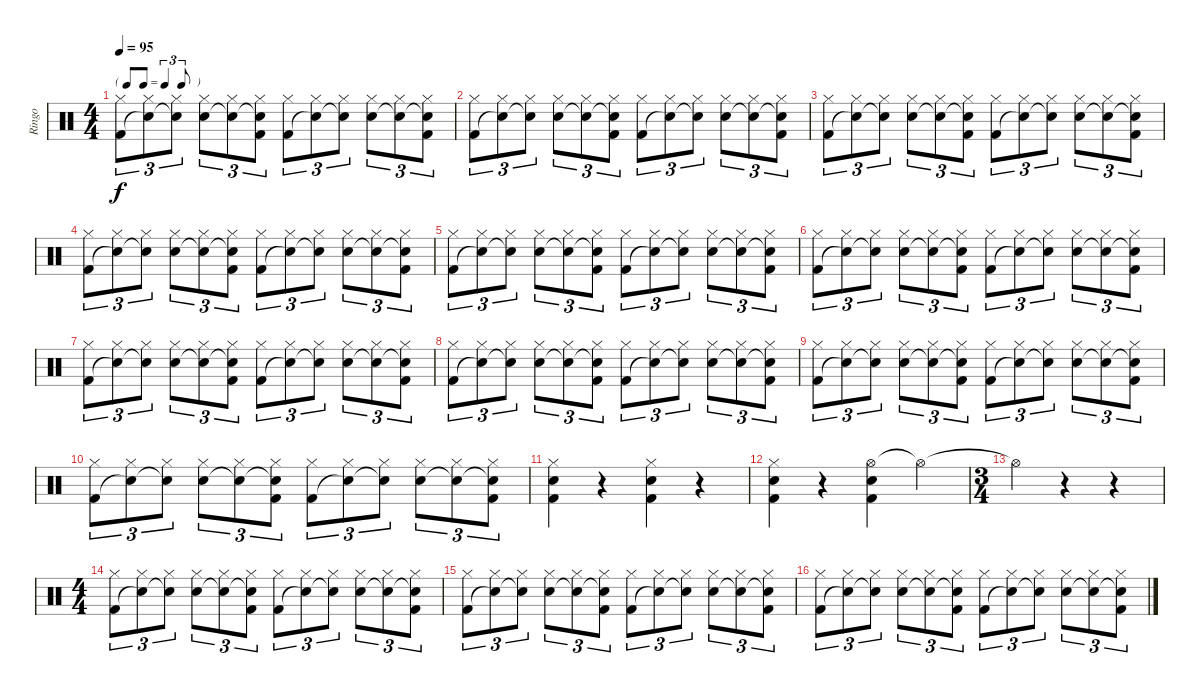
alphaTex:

\track ("Ringo" "Ringo") {instrument percussion}
\staff {score}
\articulation defaults
\ts (4 4)
\tf triplet8th
\tempo 95
\clef neutral
\ks c
("Hi-Hat (closed)" "Kick (hit) 2").8{tu (3 2) dy f} ("Hi-Hat (closed)" "Snare (hit)"{t}).8{tu (3 2)} ("Hi-Hat (closed)" "Snare (hit)"{t}).8{tu (3 2)} ("Hi-Hat (closed)" "Snare (hit) 2").8{tu (3 2)} ("Hi-Hat (closed)" "Snare (hit)"{t}).8{tu (3 2)} ("Hi-Hat (closed)" "Snare (hit)"{t} "Kick (hit) 2").8{tu (3 2)} ("Hi-Hat (closed)" "Kick (hit) 2").8{tu (3 2)} ("Hi-Hat (closed)" "Snare (hit)"{t}).8{tu (3 2)} ("Hi-Hat (closed)" "Snare (hit)"{t}).8{tu (3 2)} ("Hi-Hat (closed)" "Snare (hit) 2").8{tu (3 2)} ("Hi-Hat (closed)" "Snare (hit)"{t}).8{tu (3 2)} ("Hi-Hat (closed)" "Snare (hit)"{t} "Kick (hit) 2").8{tu (3 2)} |
("Hi-Hat (closed)" "Kick (hit) 2").8{tu (3 2)} ("Hi-Hat (closed)" "Snare (hit)"{t}).8{tu (3 2)} ("Hi-Hat (closed)" "Snare (hit)"{t}).8{tu (3 2)} ("Hi-Hat (closed)" "Snare (hit) 2").8{tu (3 2)} ("Hi-Hat (closed)" "Snare (hit)"{t}).8{tu (3 2)} ("Hi-Hat (closed)" "Snare (hit)"{t} "Kick (hit) 2").8{tu (3 2)} ("Hi-Hat (closed)" "Kick (hit) 2").8{tu (3 2)} ("Hi-Hat (closed)" "Snare (hit)"{t}).8{tu (3 2)} ("Hi-Hat (closed)" "Snare (hit)"{t}).8{tu (3 2)} ("Hi-Hat (closed)" "Snare (hit) 2").8{tu (3 2)} ("Hi-Hat (closed)" "Snare (hit)"{t}).8{tu (3 2)} ("Hi-Hat (closed)" "Snare (hit)"{t} "Kick (hit) 2").8{tu (3 2)} |
("Hi-Hat (closed)" "Kick (hit) 2").8{tu (3 2)} ("Hi-Hat (closed)" "Snare (hit)"{t}).8{tu (3 2)} ("Hi-Hat (closed)" "Snare (hit)"{t}).8{tu (3 2)} ("Hi-Hat (closed)" "Snare (hit) 2").8{tu (3 2)} ("Hi-Hat (closed)" "Snare (hit)"{t}).8{tu (3 2)} ("Hi-Hat (closed)" "Snare (hit)"{t} "Kick (hit) 2").8{tu (3 2)} ("Hi-Hat (closed)" "Kick (hit) 2").8{tu (3 2)} ("Hi-Hat (closed)" "Snare (hit)"{t}).8{tu (3 2)} ("Hi-Hat (closed)" "Snare (hit)"{t}).8{tu (3 2)} ("Hi-Hat (closed)" "Snare (hit) 2").8{tu (3 2)} ("Hi-Hat (closed)" "Snare (hit)"{t}).8{tu (3 2)} ("Hi-Hat (closed)" "Snare (hit)"{t} "Kick (hit) 2").8{tu (3 2)} |
("Hi-Hat (closed)" "Kick (hit) 2").8{tu (3 2)} ("Hi-Hat (closed)" "Snare (hit)"{t}).8{tu (3 2)} ("Hi-Hat (closed)" "Snare (hit)"{t}).8{tu (3 2)} ("Hi-Hat (closed)" "Snare (hit) 2").8{tu (3 2)} ("Hi-Hat (closed)" "Snare (hit)"{t}).8{tu (3 2)} ("Hi-Hat (closed)" "Snare (hit)"{t} "Kick (hit) 2").8{tu (3 2)} ("Hi-Hat (closed)" "Kick (hit) 2").8{tu (3 2)} ("Hi-Hat (closed)" "Snare (hit)"{t}).8{tu (3 2)} ("Hi-Hat (closed)" "Snare (hit)"{t}).8{tu (3 2)} ("Hi-Hat (closed)" "Snare (hit) 2").8{tu (3 2)} ("Hi-Hat (closed)" "Snare (hit)"{t}).8{tu (3 2)} ("Hi-Hat (closed)" "Snare (hit)"{t} "Kick (hit) 2").8{tu (3 2)} |
("Hi-Hat (closed)" "Kick (hit) 2").8{tu (3 2)} ("Hi-Hat (closed)" "Snare (hit)"{t}).8{tu (3 2)} ("Hi-Hat (closed)" "Snare (hit)"{t}).8{tu (3 2)} ("Hi-Hat (closed)" "Snare (hit) 2").8{tu (3 2)} ("Hi-Hat (closed)" "Snare (hit)"{t}).8{tu (3 2)} ("Hi-Hat (closed)" "Snare (hit)"{t} "Kick (hit) 2").8{tu (3 2)} ("Hi-Hat (closed)" "Kick (hit) 2").8{tu (3 2)} ("Hi-Hat (closed)" "Snare (hit)"{t}).8{tu (3 2)} ("Hi-Hat (closed)" "Snare (hit)"{t}).8{tu (3 2)} ("Hi-Hat (closed)" "Snare (hit) 2").8{tu (3 2)} ("Hi-Hat (closed)" "Snare (hit)"{t}).8{tu (3 2)} ("Hi-Hat (closed)" "Snare (hit)"{t} "Kick (hit) 2").8{tu (3 2)} |
("Hi-Hat (closed)" "Kick (hit) 2").8{tu (3 2)} ("Hi-Hat (closed)" "Snare (hit)"{t}).8{tu (3 2)} ("Hi-Hat (closed)" "Snare (hit)"{t}).8{tu (3 2)} ("Hi-Hat (closed)" "Snare (hit) 2").8{tu (3 2)} ("Hi-Hat (closed)" "Snare (hit)"{t}).8{tu (3 2)} ("Hi-Hat (closed)" "Snare (hit)"{t} "Kick (hit) 2").8{tu (3 2)} ("Hi-Hat (closed)" "Kick (hit) 2").8{tu (3 2)} ("Hi-Hat (closed)" "Snare (hit)"{t}).8{tu (3 2)} ("Hi-Hat (closed)" "Snare (hit)"{t}).8{tu (3 2)} ("Hi-Hat (closed)" "Snare (hit) 2").8{tu (3 2)} ("Hi-Hat (closed)" "Snare (hit)"{t}).8{tu (3 2)} ("Hi-Hat (closed)" "Snare (hit)"{t} "Kick (hit) 2").8{tu (3 2)} |
("Hi-Hat (closed)" "Kick (hit) 2").8{tu (3 2)} ("Hi-Hat (closed)" "Snare (hit)"{t}).8{tu (3 2)} ("Hi-Hat (closed)" "Snare (hit)"{t}).8{tu (3 2)} ("Hi-Hat (closed)" "Snare (hit) 2").8{tu (3 2)} ("Hi-Hat (closed)" "Snare (hit)"{t}).8{tu (3 2)} ("Hi-Hat (closed)" "Snare (hit)"{t} "Kick (hit) 2").8{tu (3 2)} ("Hi-Hat (closed)" "Kick (hit) 2").8{tu (3 2)} ("Hi-Hat (closed)" "Snare (hit)"{t}).8{tu (3 2)} ("Hi-Hat (closed)" "Snare (hit)"{t}).8{tu (3 2)} ("Hi-Hat (closed)" "Snare (hit) 2").8{tu (3 2)} ("Hi-Hat (closed)" "Snare (hit)"{t}).8{tu (3 2)} ("Hi-Hat (closed)" "Snare (hit)"{t} "Kick (hit) 2").8{tu (3 2)} |
("Hi-Hat (closed)" "Kick (hit) 2").8{tu (3 2)} ("Hi-Hat (closed)" "Snare (hit)"{t}).8{tu (3 2)} ("Hi-Hat (closed)" "Snare (hit)"{t}).8{tu (3 2)} ("Hi-Hat (closed)" "Snare (hit) 2").8{tu (3 2)} ("Hi-Hat (closed)" "Snare (hit)"{t}).8{tu (3 2)} ("Hi-Hat (closed)" "Snare (hit)"{t} "Kick (hit) 2").8{tu (3 2)} ("Hi-Hat (closed)" "Kick (hit) 2").8{tu (3 2)} ("Hi-Hat (closed)" "Snare (hit)"{t}).8{tu (3 2)} ("Hi-Hat (closed)" "Snare (hit)"{t}).8{tu (3 2)} ("Hi-Hat (closed)" "Snare (hit) 2").8{tu (3 2)} ("Hi-Hat (closed)" "Snare (hit)"{t}).8{tu (3 2)} ("Hi-Hat (closed)" "Snare (hit)"{t} "Kick (hit) 2").8{tu (3 2)} |
("Hi-Hat (closed)" "Kick (hit) 2").8{tu (3 2)} ("Hi-Hat (closed)" "Snare (hit)"{t}).8{tu (3 2)} ("Hi-Hat (closed)" "Snare (hit)"{t}).8{tu (3 2)} ("Hi-Hat (closed)" "Snare (hit) 2").8{tu (3 2)} ("Hi-Hat (closed)" "Snare (hit)"{t}).8{tu (3 2)} ("Hi-Hat (closed)" "Snare (hit)"{t} "Kick (hit) 2").8{tu (3 2)} ("Hi-Hat (closed)" "Kick (hit) 2").8{tu (3 2)} ("Hi-Hat (closed)" "Snare (hit)"{t}).8{tu (3 2)} ("Hi-Hat (closed)" "Snare (hit)"{t}).8{tu (3 2)} ("Hi-Hat (closed)" "Snare (hit) 2").8{tu (3 2)} ("Hi-Hat (closed)" "Snare (hit)"{t}).8{tu (3 2)} ("Hi-Hat (closed)" "Snare (hit)"{t} "Kick (hit) 2").8{tu (3 2)} |
("Hi-Hat (closed)" "Kick (hit) 2").8{tu (3 2)} ("Hi-Hat (closed)" "Snare (hit)"{t}).8{tu (3 2)} ("Hi-Hat (closed)" "Snare (hit)"{t}).8{tu (3 2)} ("Hi-Hat (closed)" "Snare (hit) 2").8{tu (3 2)} ("Hi-Hat (closed)" "Snare (hit)"{t}).8{tu (3 2)} ("Hi-Hat (closed)" "Snare (hit)"{t} "Kick (hit) 2").8{tu (3 2)} ("Hi-Hat (closed)" "Kick (hit) 2").8{tu (3 2)} ("Hi-Hat (closed)" "Snare (hit)"{t}).8{tu (3 2)} ("Hi-Hat (closed)" "Snare (hit)"{t}).8{tu (3 2)} ("Hi-Hat (closed)" "Snare (hit) 2").8{tu (3 2)} ("Hi-Hat (closed)" "Snare (hit)"{t}).8{tu (3 2)} ("Hi-Hat (closed)" "Snare (hit)"{t} "Kick (hit) 2").8{tu (3 2)} |
("Hi-Hat (closed)" "Snare (hit) 2" "Kick (hit) 2").4 r.4 ("Hi-Hat (closed)" "Snare (hit) 2" "Kick (hit) 2").4 r.4 |
("Hi-Hat (closed)" "Snare (hit) 2" "Kick (hit) 2").4 r.4 ("Hi-Hat (open)" "Snare (hit) 2" "Kick (hit) 2").4 "Hi-Hat (open)"{t}.4 |
\ts (3 4)
"Hi-Hat (open)"{t}.4 r.4 r.4 |
\ts (4 4)
("Hi-Hat (closed)" "Kick (hit) 2").8{tu (3 2)} ("Hi-Hat (closed)" "Snare (hit)"{t}).8{tu (3 2)} ("Hi-Hat (closed)" "Snare (hit)"{t}).8{tu (3 2)} ("Hi-Hat (closed)" "Snare (hit) 2").8{tu (3 2)} ("Hi-Hat (closed)" "Snare (hit)"{t}).8{tu (3 2)} ("Hi-Hat (closed)" "Snare (hit)"{t} "Kick (hit) 2").8{tu (3 2)} ("Hi-Hat (closed)" "Kick (hit) 2").8{tu (3 2)} ("Hi-Hat (closed)" "Snare (hit)"{t}).8{tu (3 2)} ("Hi-Hat (closed)" "Snare (hit)"{t}).8{tu (3 2)} ("Hi-Hat (closed)" "Snare (hit) 2").8{tu (3 2)} ("Hi-Hat (closed)" "Snare (hit)"{t}).8{tu (3 2)} ("Hi-Hat (closed)" "Snare (hit)"{t} "Kick (hit) 2").8{tu (3 2)} |
("Hi-Hat (closed)" "Kick (hit) 2").8{tu (3 2)} ("Hi-Hat (closed)" "Snare (hit)"{t}).8{tu (3 2)} ("Hi-Hat (closed)" "Snare (hit)"{t}).8{tu (3 2)} ("Hi-Hat (closed)" "Snare (hit) 2").8{tu (3 2)} ("Hi-Hat (closed)" "Snare (hit)"{t}).8{tu (3 2)} ("Hi-Hat (closed)" "Snare (hit)"{t} "Kick (hit) 2").8{tu (3 2)} ("Hi-Hat (closed)" "Kick (hit) 2").8{tu (3 2)} ("Hi-Hat (closed)" "Snare (hit)"{t}).8{tu (3 2)} ("Hi-Hat (closed)" "Snare (hit)"{t}).8{tu (3 2)} ("Hi-Hat (closed)" "Snare (hit) 2").8{tu (3 2)} ("Hi-Hat (closed)" "Snare (hit)"{t}).8{tu (3 2)} ("Hi-Hat (closed)" "Snare (hit)"{t} "Kick (hit) 2").8{tu (3 2)} |
("Hi-Hat (closed)" "Kick (hit) 2").8{tu (3 2)} ("Hi-Hat (closed)" "Snare (hit)"{t}).8{tu (3 2)} ("Hi-Hat (closed)" "Snare (hit)"{t}).8{tu (3 2)} ("Hi-Hat (closed)" "Snare (hit) 2").8{tu (3 2)} ("Hi-Hat (closed)" "Snare (hit)"{t}).8{tu (3 2)} ("Hi-Hat (closed)" "Snare (hit)"{t} "Kick (hit) 2").8{tu (3 2)} ("Hi-Hat (closed)" "Kick (hit) 2").8{tu (3 2)} ("Hi-Hat (closed)" "Snare (hit)"{t}).8{tu (3 2)} ("Hi-Hat (closed)" "Snare (hit)"{t}).8{tu (3 2)} ("Hi-Hat (closed)" "Snare (hit) 2").8{tu (3 2)} ("Hi-Hat (closed)" "Snare (hit)"{t}).8{tu (3 2)} ("Hi-Hat (closed)" "Snare (hit)"{t} "Kick (hit) 2").8{tu (3 2)}
